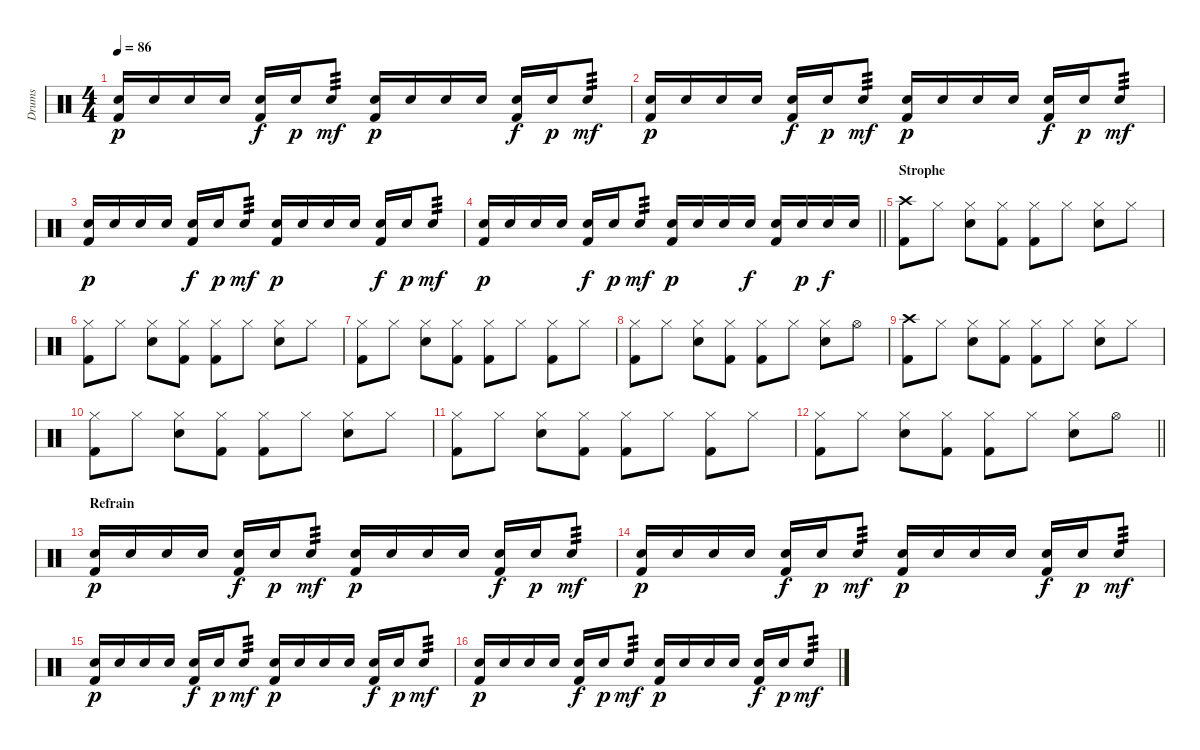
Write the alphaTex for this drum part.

\track ("Drums" "Drums") {instrument percussion}
\staff {score}
\articulation defaults
\ts (4 4)
\tempo 86
\clef neutral
\ks c
("Snare (hit) 2" "Kick (hit) 2").16{dy p} "Snare (hit) 2".16 "Snare (hit) 2".16 "Snare (hit) 2".16 ("Snare (hit) 2" "Kick (hit) 2").16{dy f} "Snare (hit) 2".16{dy p} "Snare (hit) 2".8{tp 3 dy mf} ("Snare (hit) 2" "Kick (hit) 2").16{dy p} "Snare (hit) 2".16 "Snare (hit) 2".16 "Snare (hit) 2".16 ("Snare (hit) 2" "Kick (hit) 2").16{dy f} "Snare (hit) 2".16{dy p} "Snare (hit) 2".8{tp 3 dy mf} |
("Snare (hit) 2" "Kick (hit) 2").16{dy p} "Snare (hit) 2".16 "Snare (hit) 2".16 "Snare (hit) 2".16 ("Snare (hit) 2" "Kick (hit) 2").16{dy f} "Snare (hit) 2".16{dy p} "Snare (hit) 2".8{tp 3 dy mf} ("Snare (hit) 2" "Kick (hit) 2").16{dy p} "Snare (hit) 2".16 "Snare (hit) 2".16 "Snare (hit) 2".16 ("Snare (hit) 2" "Kick (hit) 2").16{dy f} "Snare (hit) 2".16{dy p} "Snare (hit) 2".8{tp 3 dy mf} |
("Snare (hit) 2" "Kick (hit) 2").16{dy p} "Snare (hit) 2".16 "Snare (hit) 2".16 "Snare (hit) 2".16 ("Snare (hit) 2" "Kick (hit) 2").16{dy f} "Snare (hit) 2".16{dy p} "Snare (hit) 2".8{tp 3 dy mf} ("Snare (hit) 2" "Kick (hit) 2").16{dy p} "Snare (hit) 2".16 "Snare (hit) 2".16 "Snare (hit) 2".16 ("Snare (hit) 2" "Kick (hit) 2").16{dy f} "Snare (hit) 2".16{dy p} "Snare (hit) 2".8{tp 3 dy mf} |
\barLineRight lightlight
("Snare (hit) 2" "Kick (hit) 2").16{dy p} "Snare (hit) 2".16 "Snare (hit) 2".16 "Snare (hit) 2".16 ("Snare (hit) 2" "Kick (hit) 2").16{dy f} "Snare (hit) 2".16{dy p} "Snare (hit) 2".8{tp 3 dy mf} ("Snare (hit) 2" "Kick (hit) 2").16{dy p} "Snare (hit) 2".16 "Snare (hit) 2".16 "Snare (hit) 2".16{dy f} ("Snare (hit) 2" "Kick (hit) 2").16 "Snare (hit) 2".16{dy p} "Snare (hit) 2".16{dy f} "Snare (hit) 2".16 |
\section ("" "Strophe")
("Crash high (hit)" "Kick (hit) 2").8 "Hi-Hat (closed)".8 ("Hi-Hat (closed)" "Snare (hit) 2").8 ("Hi-Hat (closed)" "Kick (hit) 2").8 ("Hi-Hat (closed)" "Kick (hit) 2").8 "Hi-Hat (closed)".8 ("Hi-Hat (closed)" "Snare (hit) 2").8 "Hi-Hat (closed)".8 |
("Hi-Hat (closed)" "Kick (hit) 2").8 "Hi-Hat (closed)".8 ("Hi-Hat (closed)" "Snare (hit) 2").8 ("Hi-Hat (closed)" "Kick (hit) 2").8 ("Hi-Hat (closed)" "Kick (hit) 2").8 "Hi-Hat (closed)".8 ("Hi-Hat (closed)" "Snare (hit) 2").8 "Hi-Hat (closed)".8 |
("Hi-Hat (closed)" "Kick (hit) 2").8 "Hi-Hat (closed)".8 ("Hi-Hat (closed)" "Snare (hit) 2").8 ("Hi-Hat (closed)" "Kick (hit) 2").8 ("Hi-Hat (closed)" "Kick (hit) 2").8 "Hi-Hat (closed)".8 ("Hi-Hat (closed)" "Kick (hit) 2").8 "Hi-Hat (closed)".8 |
("Hi-Hat (closed)" "Kick (hit) 2").8 "Hi-Hat (closed)".8 ("Hi-Hat (closed)" "Snare (hit) 2").8 ("Hi-Hat (closed)" "Kick (hit) 2").8 ("Hi-Hat (closed)" "Kick (hit) 2").8 "Hi-Hat (closed)".8 ("Hi-Hat (closed)" "Snare (hit) 2").8 "Hi-Hat (open)".8 |
("Crash high (hit)" "Kick (hit) 2").8 "Hi-Hat (closed)".8 ("Hi-Hat (closed)" "Snare (hit) 2").8 ("Hi-Hat (closed)" "Kick (hit) 2").8 ("Hi-Hat (closed)" "Kick (hit) 2").8 "Hi-Hat (closed)".8 ("Hi-Hat (closed)" "Snare (hit) 2").8 "Hi-Hat (closed)".8 |
("Hi-Hat (closed)" "Kick (hit) 2").8 "Hi-Hat (closed)".8 ("Hi-Hat (closed)" "Snare (hit) 2").8 ("Hi-Hat (closed)" "Kick (hit) 2").8 ("Hi-Hat (closed)" "Kick (hit) 2").8 "Hi-Hat (closed)".8 ("Hi-Hat (closed)" "Snare (hit) 2").8 "Hi-Hat (closed)".8 |
("Hi-Hat (closed)" "Kick (hit) 2").8 "Hi-Hat (closed)".8 ("Hi-Hat (closed)" "Snare (hit) 2").8 ("Hi-Hat (closed)" "Kick (hit) 2").8 ("Hi-Hat (closed)" "Kick (hit) 2").8 "Hi-Hat (closed)".8 ("Hi-Hat (closed)" "Kick (hit) 2").8 "Hi-Hat (closed)".8 |
\barLineRight lightlight
("Hi-Hat (closed)" "Kick (hit) 2").8 "Hi-Hat (closed)".8 ("Hi-Hat (closed)" "Snare (hit) 2").8 ("Hi-Hat (closed)" "Kick (hit) 2").8 ("Hi-Hat (closed)" "Kick (hit) 2").8 "Hi-Hat (closed)".8 ("Hi-Hat (closed)" "Snare (hit) 2").8 "Hi-Hat (open)".8 |
\section ("" "Refrain")
("Snare (hit) 2" "Kick (hit) 2").16{dy p} "Snare (hit) 2".16 "Snare (hit) 2".16 "Snare (hit) 2".16 ("Snare (hit) 2" "Kick (hit) 2").16{dy f} "Snare (hit) 2".16{dy p} "Snare (hit) 2".8{tp 3 dy mf} ("Snare (hit) 2" "Kick (hit) 2").16{dy p} "Snare (hit) 2".16 "Snare (hit) 2".16 "Snare (hit) 2".16 ("Snare (hit) 2" "Kick (hit) 2").16{dy f} "Snare (hit) 2".16{dy p} "Snare (hit) 2".8{tp 3 dy mf} |
("Snare (hit) 2" "Kick (hit) 2").16{dy p} "Snare (hit) 2".16 "Snare (hit) 2".16 "Snare (hit) 2".16 ("Snare (hit) 2" "Kick (hit) 2").16{dy f} "Snare (hit) 2".16{dy p} "Snare (hit) 2".8{tp 3 dy mf} ("Snare (hit) 2" "Kick (hit) 2").16{dy p} "Snare (hit) 2".16 "Snare (hit) 2".16 "Snare (hit) 2".16 ("Snare (hit) 2" "Kick (hit) 2").16{dy f} "Snare (hit) 2".16{dy p} "Snare (hit) 2".8{tp 3 dy mf} |
("Snare (hit) 2" "Kick (hit) 2").16{dy p} "Snare (hit) 2".16 "Snare (hit) 2".16 "Snare (hit) 2".16 ("Snare (hit) 2" "Kick (hit) 2").16{dy f} "Snare (hit) 2".16{dy p} "Snare (hit) 2".8{tp 3 dy mf} ("Snare (hit) 2" "Kick (hit) 2").16{dy p} "Snare (hit) 2".16 "Snare (hit) 2".16 "Snare (hit) 2".16 ("Snare (hit) 2" "Kick (hit) 2").16{dy f} "Snare (hit) 2".16{dy p} "Snare (hit) 2".8{tp 3 dy mf} |
("Snare (hit) 2" "Kick (hit) 2").16{dy p} "Snare (hit) 2".16 "Snare (hit) 2".16 "Snare (hit) 2".16 ("Snare (hit) 2" "Kick (hit) 2").16{dy f} "Snare (hit) 2".16{dy p} "Snare (hit) 2".8{tp 3 dy mf} ("Snare (hit) 2" "Kick (hit) 2").16{dy p} "Snare (hit) 2".16 "Snare (hit) 2".16 "Snare (hit) 2".16 ("Snare (hit) 2" "Kick (hit) 2").16{dy f} "Snare (hit) 2".16{dy p} "Snare (hit) 2".8{tp 3 dy mf}
